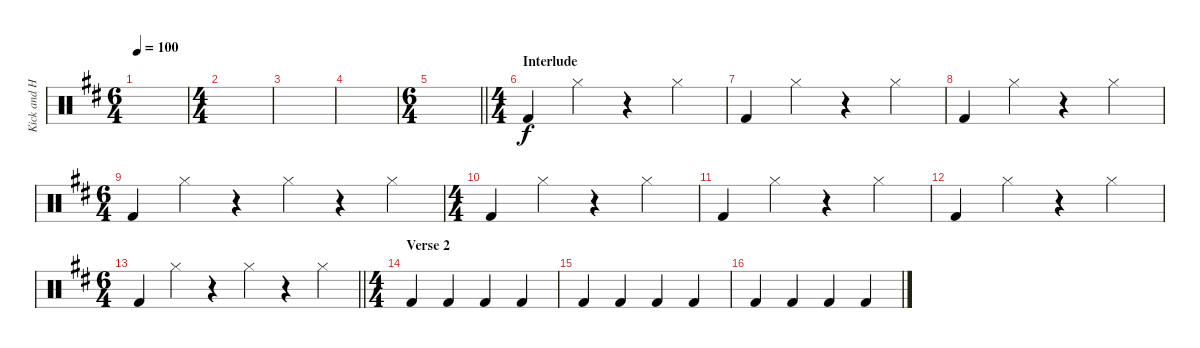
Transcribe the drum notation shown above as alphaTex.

\track ("Kick and HiHat" "Kick and H") {instrument percussion}
\staff {score}
\articulation defaults
\ts (6 4)
\tempo 100
\clef neutral
\ks d
|
\ts (4 4)
|
|
|
\ts (6 4)
\barLineRight lightlight
|
\ts (4 4)
\section ("" "Interlude")
"Kick (hit) 2".4 "Hi-Hat (closed)".4 r.4 "Hi-Hat (closed)".4 |
"Kick (hit) 2".4 "Hi-Hat (closed)".4 r.4 "Hi-Hat (closed)".4 |
"Kick (hit) 2".4 "Hi-Hat (closed)".4 r.4 "Hi-Hat (closed)".4 |
\ts (6 4)
"Kick (hit) 2".4 "Hi-Hat (closed)".4 r.4 "Hi-Hat (closed)".4 r.4 "Hi-Hat (closed)".4 |
\ts (4 4)
"Kick (hit) 2".4 "Hi-Hat (closed)".4 r.4 "Hi-Hat (closed)".4 |
"Kick (hit) 2".4 "Hi-Hat (closed)".4 r.4 "Hi-Hat (closed)".4 |
"Kick (hit) 2".4 "Hi-Hat (closed)".4 r.4 "Hi-Hat (closed)".4 |
\ts (6 4)
\barLineRight lightlight "Kick (hit) 2".4 "Hi-Hat (closed)".4
r.4 "Hi-Hat (closed)".4 r.4 "Hi-Hat (closed)".4 |
\ts (4 4)
\section ("" "Verse 2")
"Kick (hit) 2".4 "Kick (hit) 2".4 "Kick (hit) 2".4 "Kick (hit) 2".4 |
"Kick (hit) 2".4 "Kick (hit) 2".4 "Kick (hit) 2".4 "Kick (hit) 2".4 |
"Kick (hit) 2".4 "Kick (hit) 2".4 "Kick (hit) 2".4 "Kick (hit) 2".4
